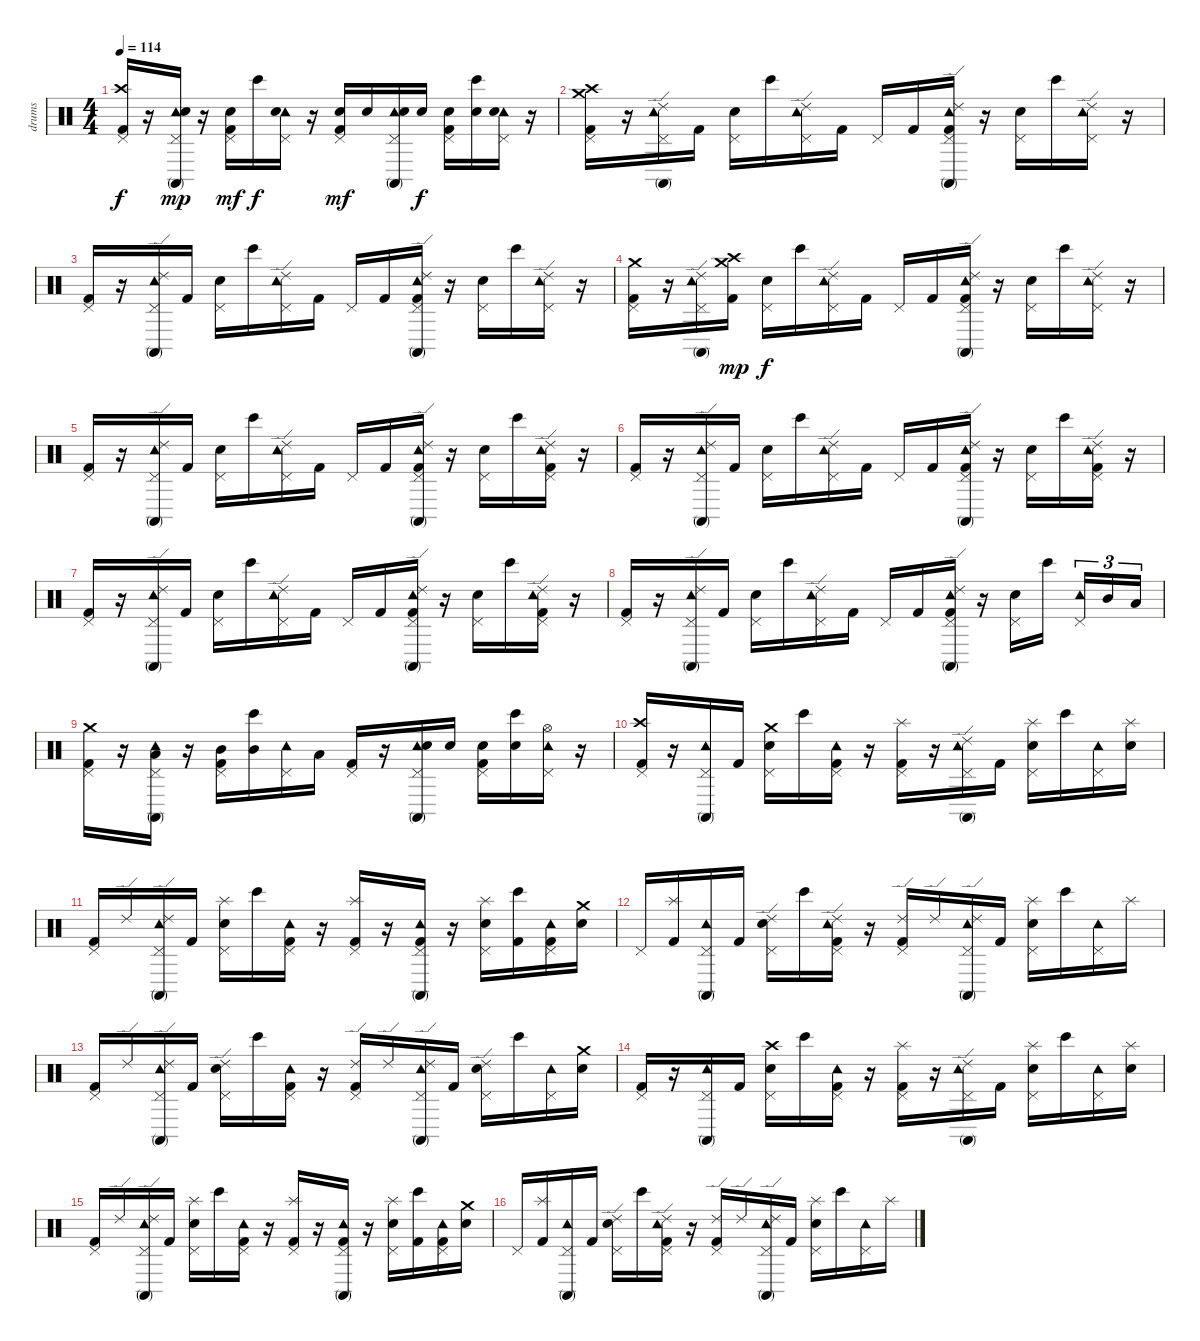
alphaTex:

\track ("drums" "drums") {instrument percussion}
\staff {score}
\articulation defaults
\ts (4 4)
\tempo 114
\clef neutral
\ks c
("Pedal Hi-Hat (hit)" "Crash high (hit)" "Kick (hit) 2").16{dy f} r.16 ("Pedal Hi-Hat (hit)" "Tambourine (hit)" "Conga high (mute)" "Electric Snare (hit)").16{dy mp} r.16 ("Pedal Hi-Hat (hit)" "Kick (hit) 2" "Electric Snare (hit)").16{dy mf} "Bongo High (hit)".16{dy f} ("Pedal Hi-Hat (hit)" "Tambourine (hit)" "Electric Snare (hit)").16 r.16 ("Pedal Hi-Hat (hit)" "Electric Snare (hit)" "Kick (hit) 2").16{dy mf} "Electric Snare (hit)".16 ("Pedal Hi-Hat (hit)" "Conga high (mute)" "Tambourine (hit)" "Electric Snare (hit)").16 "Electric Snare (hit)".16{dy f} ("Pedal Hi-Hat (hit)" "Electric Snare (hit)" "Kick (hit) 2").16 ("Bongo High (hit)" "Electric Snare (hit)").16 ("Pedal Hi-Hat (hit)" "Tambourine (hit)" "Electric Snare (hit)").16 r.16 |
("Pedal Hi-Hat (hit)" "Crash medium (hit)" "Crash high (hit)" "Kick (hit) 2").16 r.16 ("Pedal Hi-Hat (hit)" "Tambourine (hit)" "Conga high (mute)" "Ride (edge) 2").16 "Kick (hit) 2".16 ("Pedal Hi-Hat (hit)" "Electric Snare (hit)").16 "Bongo High (hit)".16 ("Pedal Hi-Hat (hit)" "Tambourine (hit)" "Ride (edge) 2").16 "Kick (hit) 2".16 "Pedal Hi-Hat (hit)".16 "Kick (hit) 2".16 ("Pedal Hi-Hat (hit)" "Conga high (mute)" "Tambourine (hit)" "Ride (edge) 2" "Kick (hit) 2").16 r.16 ("Pedal Hi-Hat (hit)" "Electric Snare (hit)").16 "Bongo High (hit)".16 ("Pedal Hi-Hat (hit)" "Tambourine (hit)" "Ride (edge) 2").16 r.16 |
("Kick (hit) 2" "Pedal Hi-Hat (hit)").16 r.16 ("Ride (edge) 2" "Pedal Hi-Hat (hit)" "Tambourine (hit)" "Conga high (mute)").16 "Kick (hit) 2".16 ("Electric Snare (hit)" "Pedal Hi-Hat (hit)").16 "Bongo High (hit)".16 ("Ride (edge) 2" "Pedal Hi-Hat (hit)" "Tambourine (hit)").16 "Kick (hit) 2".16 "Pedal Hi-Hat (hit)".16 "Kick (hit) 2".16 ("Ride (edge) 2" "Kick (hit) 2" "Pedal Hi-Hat (hit)" "Conga high (mute)" "Tambourine (hit)").16 r.16 ("Electric Snare (hit)" "Pedal Hi-Hat (hit)").16 "Bongo High (hit)".16 ("Ride (edge) 2" "Pedal Hi-Hat (hit)" "Tambourine (hit)").16 r.16 |
("Crash medium (hit)" "Kick (hit) 2" "Pedal Hi-Hat (hit)").16 r.16 ("Ride (edge) 2" "Pedal Hi-Hat (hit)" "Tambourine (hit)" "Conga high (mute)").16 ("Crash medium (hit)" "Crash high (hit)" "Kick (hit) 2").16{dy mp} ("Electric Snare (hit)" "Pedal Hi-Hat (hit)").16{dy f} "Bongo High (hit)".16 ("Ride (edge) 2" "Pedal Hi-Hat (hit)" "Tambourine (hit)").16 "Kick (hit) 2".16 "Pedal Hi-Hat (hit)".16 "Kick (hit) 2".16 ("Ride (edge) 2" "Kick (hit) 2" "Pedal Hi-Hat (hit)" "Conga high (mute)" "Tambourine (hit)").16 r.16 ("Electric Snare (hit)" "Pedal Hi-Hat (hit)").16 "Bongo High (hit)".16 ("Ride (edge) 2" "Pedal Hi-Hat (hit)" "Tambourine (hit)").16 r.16 |
("Kick (hit) 2" "Pedal Hi-Hat (hit)").16 r.16 ("Ride (edge) 2" "Pedal Hi-Hat (hit)" "Tambourine (hit)" "Conga high (mute)").16 "Kick (hit) 2".16 ("Electric Snare (hit)" "Pedal Hi-Hat (hit)").16 "Bongo High (hit)".16 ("Ride (edge) 2" "Pedal Hi-Hat (hit)" "Tambourine (hit)").16 "Kick (hit) 2".16 "Pedal Hi-Hat (hit)".16 "Kick (hit) 2".16 ("Ride (edge) 2" "Kick (hit) 2" "Pedal Hi-Hat (hit)" "Conga high (mute)" "Tambourine (hit)").16 r.16 ("Electric Snare (hit)" "Pedal Hi-Hat (hit)").16 "Bongo High (hit)".16 ("Kick (hit) 2" "Ride (edge) 2" "Pedal Hi-Hat (hit)" "Tambourine (hit)").16 r.16 |
("Pedal Hi-Hat (hit)" "Kick (hit) 2").16 r.16 ("Pedal Hi-Hat (hit)" "Tambourine (hit)" "Conga high (mute)" "Ride (edge) 2").16 "Kick (hit) 2".16 ("Pedal Hi-Hat (hit)" "Electric Snare (hit)").16 "Bongo High (hit)".16 ("Pedal Hi-Hat (hit)" "Tambourine (hit)" "Ride (edge) 2").16 "Kick (hit) 2".16 "Pedal Hi-Hat (hit)".16 "Kick (hit) 2".16 ("Pedal Hi-Hat (hit)" "Conga high (mute)" "Tambourine (hit)" "Ride (edge) 2" "Kick (hit) 2").16 r.16 ("Pedal Hi-Hat (hit)" "Electric Snare (hit)").16 "Bongo High (hit)".16 ("Pedal Hi-Hat (hit)" "Tambourine (hit)" "Kick (hit) 2" "Ride (edge) 2").16 r.16 |
("Pedal Hi-Hat (hit)" "Kick (hit) 2").16 r.16 ("Pedal Hi-Hat (hit)" "Tambourine (hit)" "Conga high (mute)" "Ride (edge) 2").16 "Kick (hit) 2".16 ("Pedal Hi-Hat (hit)" "Electric Snare (hit)").16 "Bongo High (hit)".16 ("Pedal Hi-Hat (hit)" "Tambourine (hit)" "Ride (edge) 2").16 "Kick (hit) 2".16 "Pedal Hi-Hat (hit)".16 "Kick (hit) 2".16 ("Pedal Hi-Hat (hit)" "Conga high (mute)" "Tambourine (hit)" "Ride (edge) 2" "Kick (hit) 2").16 r.16 ("Pedal Hi-Hat (hit)" "Electric Snare (hit)").16 "Bongo High (hit)".16 ("Pedal Hi-Hat (hit)" "Tambourine (hit)" "Kick (hit) 2" "Ride (edge) 2").16 r.16 |
("Pedal Hi-Hat (hit)" "Kick (hit) 2").16 r.16 ("Pedal Hi-Hat (hit)" "Tambourine (hit)" "Conga high (mute)" "Ride (edge) 2").16 "Kick (hit) 2".16 ("Pedal Hi-Hat (hit)" "Electric Snare (hit)").16 "Bongo High (hit)".16 ("Pedal Hi-Hat (hit)" "Tambourine (hit)" "Ride (edge) 2").16 "Kick (hit) 2".16 "Pedal Hi-Hat (hit)".16 "Kick (hit) 2".16 ("Pedal Hi-Hat (hit)" "Conga high (mute)" "Tambourine (hit)" "Ride (edge) 2" "Kick (hit) 2").16 r.16 ("Pedal Hi-Hat (hit)" "Electric Snare (hit)").16 "Bongo High (hit)".16 ("Pedal Hi-Hat (hit)" "Tambourine (hit)").16{tu (3 2)} "Mid Tom (hit)".16{tu (3 2)} "Low Tom (hit)".16{tu (3 2)} |
("Pedal Hi-Hat (hit)" "Crash medium (hit)" "Kick (hit) 2").16 r.16 ("Pedal Hi-Hat (hit)" "Tambourine (hit)" "Conga high (mute)" "Low Tom (hit)").16 r.16 ("Pedal Hi-Hat (hit)" "Kick (hit) 2" "Mid Tom (hit)").16 ("Bongo High (hit)" "Mid Tom (hit)").16 ("Pedal Hi-Hat (hit)" "Tambourine (hit)").16 "Low Tom (hit)".16 ("Pedal Hi-Hat (hit)" "Kick (hit) 2").16 r.16 ("Pedal Hi-Hat (hit)" "Conga high (mute)" "Tambourine (hit)" "Electric Snare (hit)").16 "Electric Snare (hit)".16 ("Pedal Hi-Hat (hit)" "Kick (hit) 2" "Electric Snare (hit)").16 ("Bongo High (hit)" "Electric Snare (hit)").16 ("Pedal Hi-Hat (hit)" "Tambourine (hit)" "Hi-Hat (open)").16 r.16 |
("Crash high (hit)" "Kick (hit) 2" "Pedal Hi-Hat (hit)").16 r.16 ("Pedal Hi-Hat (hit)" "Tambourine (hit)" "Conga high (mute)").16 "Kick (hit) 2".16 ("Crash medium (hit)" "Electric Snare (hit)" "Pedal Hi-Hat (hit)").16 "Bongo High (hit)".16 ("Kick (hit) 2" "Pedal Hi-Hat (hit)" "Tambourine (hit)").16 r.16 ("Splash (hit)" "Kick (hit) 2" "Pedal Hi-Hat (hit)").16 r.16 ("Ride (edge) 2" "Pedal Hi-Hat (hit)" "Conga high (mute)" "Tambourine (hit)").16 "Kick (hit) 2".16 ("Splash (hit)" "Electric Snare (hit)" "Pedal Hi-Hat (hit)").16 "Bongo High (hit)".16 ("Pedal Hi-Hat (hit)" "Tambourine (hit)").16 ("Electric Snare (hit)" "Splash (hit)").16 |
("Kick (hit) 2" "Pedal Hi-Hat (hit)").16 "Ride (edge) 2".16 ("Ride (edge) 2" "Pedal Hi-Hat (hit)" "Tambourine (hit)" "Conga high (mute)").16 "Kick (hit) 2".16 ("Splash (hit)" "Electric Snare (hit)" "Pedal Hi-Hat (hit)").16 "Bongo High (hit)".16 ("Kick (hit) 2" "Pedal Hi-Hat (hit)" "Tambourine (hit)").16 r.16 ("Splash (hit)" "Kick (hit) 2" "Pedal Hi-Hat (hit)").16 r.16 ("Kick (hit) 2" "Pedal Hi-Hat (hit)" "Conga high (mute)" "Tambourine (hit)").16 r.16 ("Splash (hit)" "Electric Snare (hit)" "Pedal Hi-Hat (hit)").16 ("Kick (hit) 2" "Bongo High (hit)").16 ("Kick (hit) 2" "Pedal Hi-Hat (hit)" "Tambourine (hit)").16 ("Electric Snare (hit)" "Crash medium (hit)").16 |
"Pedal Hi-Hat (hit)".16 ("Kick (hit) 2" "Splash (hit)").16 ("Pedal Hi-Hat (hit)" "Tambourine (hit)" "Conga high (mute)").16 "Kick (hit) 2".16 ("Ride (edge) 2" "Electric Snare (hit)" "Pedal Hi-Hat (hit)").16 "Bongo High (hit)".16 ("Ride (edge) 2" "Kick (hit) 2" "Pedal Hi-Hat (hit)" "Tambourine (hit)").16 r.16 ("Ride (edge) 2" "Kick (hit) 2" "Pedal Hi-Hat (hit)").16 "Ride (edge) 2".16 ("Ride (edge) 2" "Pedal Hi-Hat (hit)" "Conga high (mute)" "Tambourine (hit)").16 "Kick (hit) 2".16 ("Splash (hit)" "Electric Snare (hit)" "Pedal Hi-Hat (hit)").16 "Bongo High (hit)".16 ("Pedal Hi-Hat (hit)" "Tambourine (hit)").16 "Splash (hit)".16 |
("Kick (hit) 2" "Pedal Hi-Hat (hit)").16 "Ride (edge) 2".16 ("Ride (edge) 2" "Pedal Hi-Hat (hit)" "Tambourine (hit)" "Conga high (mute)").16 "Kick (hit) 2".16 ("Ride (edge) 2" "Electric Snare (hit)" "Pedal Hi-Hat (hit)").16 "Bongo High (hit)".16 ("Kick (hit) 2" "Pedal Hi-Hat (hit)" "Tambourine (hit)").16 r.16 ("Ride (edge) 2" "Kick (hit) 2" "Pedal Hi-Hat (hit)").16 "Ride (edge) 2".16 ("Ride (edge) 2" "Pedal Hi-Hat (hit)" "Conga high (mute)" "Tambourine (hit)").16 "Kick (hit) 2".16 ("Ride (edge) 2" "Electric Snare (hit)" "Pedal Hi-Hat (hit)").16 "Bongo High (hit)".16 ("Pedal Hi-Hat (hit)" "Tambourine (hit)").16 ("Crash medium (hit)" "Electric Snare (hit)").16 |
("Kick (hit) 2" "Pedal Hi-Hat (hit)").16 r.16 ("Pedal Hi-Hat (hit)" "Tambourine (hit)" "Conga high (mute)").16 "Kick (hit) 2".16 ("Crash high (hit)" "Electric Snare (hit)" "Pedal Hi-Hat (hit)").16 "Bongo High (hit)".16 ("Kick (hit) 2" "Pedal Hi-Hat (hit)" "Tambourine (hit)").16 r.16 ("Splash (hit)" "Kick (hit) 2" "Pedal Hi-Hat (hit)").16 r.16 ("Ride (edge) 2" "Pedal Hi-Hat (hit)" "Conga high (mute)" "Tambourine (hit)").16 "Kick (hit) 2".16 ("Splash (hit)" "Electric Snare (hit)" "Pedal Hi-Hat (hit)").16 "Bongo High (hit)".16 ("Pedal Hi-Hat (hit)" "Tambourine (hit)").16 ("Electric Snare (hit)" "Splash (hit)").16 |
("Kick (hit) 2" "Pedal Hi-Hat (hit)").16 "Ride (edge) 2".16 ("Ride (edge) 2" "Pedal Hi-Hat (hit)" "Tambourine (hit)" "Conga high (mute)").16 "Kick (hit) 2".16 ("Splash (hit)" "Electric Snare (hit)" "Pedal Hi-Hat (hit)").16 "Bongo High (hit)".16 ("Kick (hit) 2" "Pedal Hi-Hat (hit)" "Tambourine (hit)").16 r.16 ("Splash (hit)" "Kick (hit) 2" "Pedal Hi-Hat (hit)").16 r.16 ("Kick (hit) 2" "Pedal Hi-Hat (hit)" "Conga high (mute)" "Tambourine (hit)").16 r.16 ("Splash (hit)" "Electric Snare (hit)" "Pedal Hi-Hat (hit)").16 ("Kick (hit) 2" "Bongo High (hit)").16 ("Kick (hit) 2" "Pedal Hi-Hat (hit)" "Tambourine (hit)").16 ("Electric Snare (hit)" "Crash medium (hit)").16 |
"Pedal Hi-Hat (hit)".16 ("Kick (hit) 2" "Splash (hit)").16 ("Pedal Hi-Hat (hit)" "Tambourine (hit)" "Conga high (mute)").16 "Kick (hit) 2".16 ("Ride (edge) 2" "Electric Snare (hit)" "Pedal Hi-Hat (hit)").16 "Bongo High (hit)".16 ("Ride (edge) 2" "Kick (hit) 2" "Pedal Hi-Hat (hit)" "Tambourine (hit)").16 r.16 ("Ride (edge) 2" "Kick (hit) 2" "Pedal Hi-Hat (hit)").16 "Ride (edge) 2".16 ("Ride (edge) 2" "Pedal Hi-Hat (hit)" "Conga high (mute)" "Tambourine (hit)").16 "Kick (hit) 2".16 ("Splash (hit)" "Electric Snare (hit)" "Pedal Hi-Hat (hit)").16 "Bongo High (hit)".16 ("Pedal Hi-Hat (hit)" "Tambourine (hit)").16 "Splash (hit)".16
